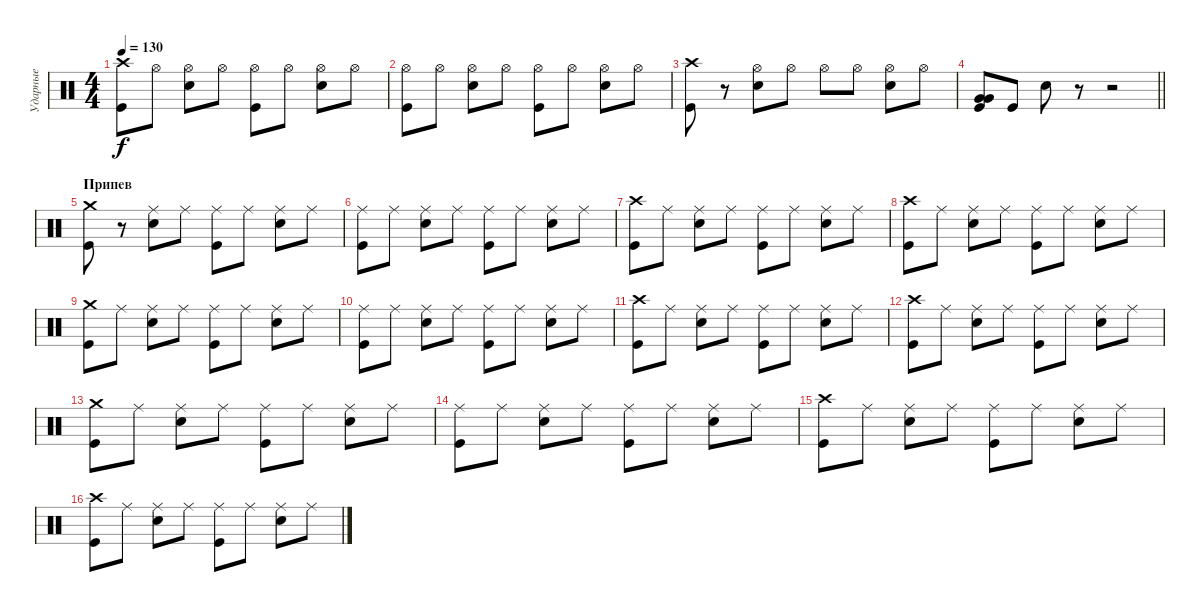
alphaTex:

\track ("Ударные" "Ударные") {instrument percussion}
\staff {score}
\articulation defaults
\ts (4 4)
\tempo 130
\clef neutral
\ks c
("Kick (hit)" "Crash high (hit)").8{dy f} "Hi-Hat (open)".8 ("Snare (hit) 2" "Hi-Hat (open)").8 "Hi-Hat (open)".8 ("Kick (hit)" "Hi-Hat (open)").8 "Hi-Hat (open)".8 ("Snare (hit) 2" "Hi-Hat (open)").8 "Hi-Hat (open)".8 |
("Kick (hit)" "Hi-Hat (open)").8 "Hi-Hat (open)".8 ("Snare (hit) 2" "Hi-Hat (open)").8 "Hi-Hat (open)".8 ("Kick (hit)" "Hi-Hat (open)").8 "Hi-Hat (open)".8 ("Snare (hit) 2" "Hi-Hat (open)").8 "Hi-Hat (open)".8 |
("Kick (hit)" "Crash high (hit)").8 r.8 ("Snare (hit) 2" "Hi-Hat (open)").8 "Hi-Hat (open)".8 "Hi-Hat (open)".8 "Hi-Hat (open)".8 ("Snare (hit) 2" "Hi-Hat (open)").8 "Hi-Hat (open)".8 |
\barLineRight lightlight
("Kick (hit)" "Very Low Tom (hit)" "Very Low Tom (hit)").8{bd 120} "Kick (hit)".8 "Snare (hit) 2".8 r.8 r.2 |
\section ("" "Припев")
("Kick (hit)" "Crash medium (hit)").8 r.8 ("Snare (hit) 2" "Ride (middle)").8 "Ride (middle)".8 ("Kick (hit)" "Ride (middle)").8 "Ride (middle)".8 ("Snare (hit) 2" "Ride (middle)").8 "Ride (middle)".8 |
("Kick (hit)" "Ride (middle)").8 "Ride (middle)".8 ("Snare (hit) 2" "Ride (middle)").8 "Ride (middle)".8 ("Kick (hit)" "Ride (middle)").8 "Ride (middle)".8 ("Snare (hit) 2" "Ride (middle)").8 "Ride (middle)".8 |
("Kick (hit)" "Crash high (hit)").8 "Ride (middle)".8 ("Snare (hit) 2" "Ride (middle)").8 "Ride (middle)".8 ("Kick (hit)" "Ride (middle)").8 "Ride (middle)".8 ("Snare (hit) 2" "Ride (middle)").8 "Ride (middle)".8 |
("Kick (hit)" "Crash high (hit)").8 "Ride (middle)".8 ("Snare (hit) 2" "Ride (middle)").8 "Ride (middle)".8 ("Kick (hit)" "Ride (middle)").8 "Ride (middle)".8 ("Snare (hit) 2" "Ride (middle)").8 "Ride (middle)".8 |
("Kick (hit)" "Crash medium (hit)").8 "Ride (middle)".8 ("Snare (hit) 2" "Ride (middle)").8 "Ride (middle)".8 ("Kick (hit)" "Ride (middle)").8 "Ride (middle)".8 ("Snare (hit) 2" "Ride (middle)").8 "Ride (middle)".8 |
("Kick (hit)" "Ride (middle)").8 "Ride (middle)".8 ("Snare (hit) 2" "Ride (middle)").8 "Ride (middle)".8 ("Kick (hit)" "Ride (middle)").8 "Ride (middle)".8 ("Snare (hit) 2" "Ride (middle)").8 "Ride (middle)".8 |
("Kick (hit)" "Crash high (hit)").8 "Ride (middle)".8 ("Snare (hit) 2" "Ride (middle)").8 "Ride (middle)".8 ("Kick (hit)" "Ride (middle)").8 "Ride (middle)".8 ("Snare (hit) 2" "Ride (middle)").8 "Ride (middle)".8 |
("Kick (hit)" "Crash high (hit)").8 "Ride (middle)".8 ("Snare (hit) 2" "Ride (middle)").8 "Ride (middle)".8 ("Kick (hit)" "Ride (middle)").8 "Ride (middle)".8 ("Snare (hit) 2" "Ride (middle)").8 "Ride (middle)".8 |
("Kick (hit)" "Crash medium (hit)").8 "Ride (middle)".8 ("Snare (hit) 2" "Ride (middle)").8 "Ride (middle)".8 ("Kick (hit)" "Ride (middle)").8 "Ride (middle)".8 ("Snare (hit) 2" "Ride (middle)").8 "Ride (middle)".8 |
("Kick (hit)" "Ride (middle)").8 "Ride (middle)".8 ("Snare (hit) 2" "Ride (middle)").8 "Ride (middle)".8 ("Kick (hit)" "Ride (middle)").8 "Ride (middle)".8 ("Snare (hit) 2" "Ride (middle)").8 "Ride (middle)".8 |
("Kick (hit)" "Crash high (hit)").8 "Ride (middle)".8 ("Snare (hit) 2" "Ride (middle)").8 "Ride (middle)".8 ("Kick (hit)" "Ride (middle)").8 "Ride (middle)".8 ("Snare (hit) 2" "Ride (middle)").8 "Ride (middle)".8 |
("Kick (hit)" "Crash high (hit)").8 "Ride (middle)".8 ("Snare (hit) 2" "Ride (middle)").8 "Ride (middle)".8 ("Kick (hit)" "Ride (middle)").8 "Ride (middle)".8 ("Snare (hit) 2" "Ride (middle)").8 "Ride (middle)".8
